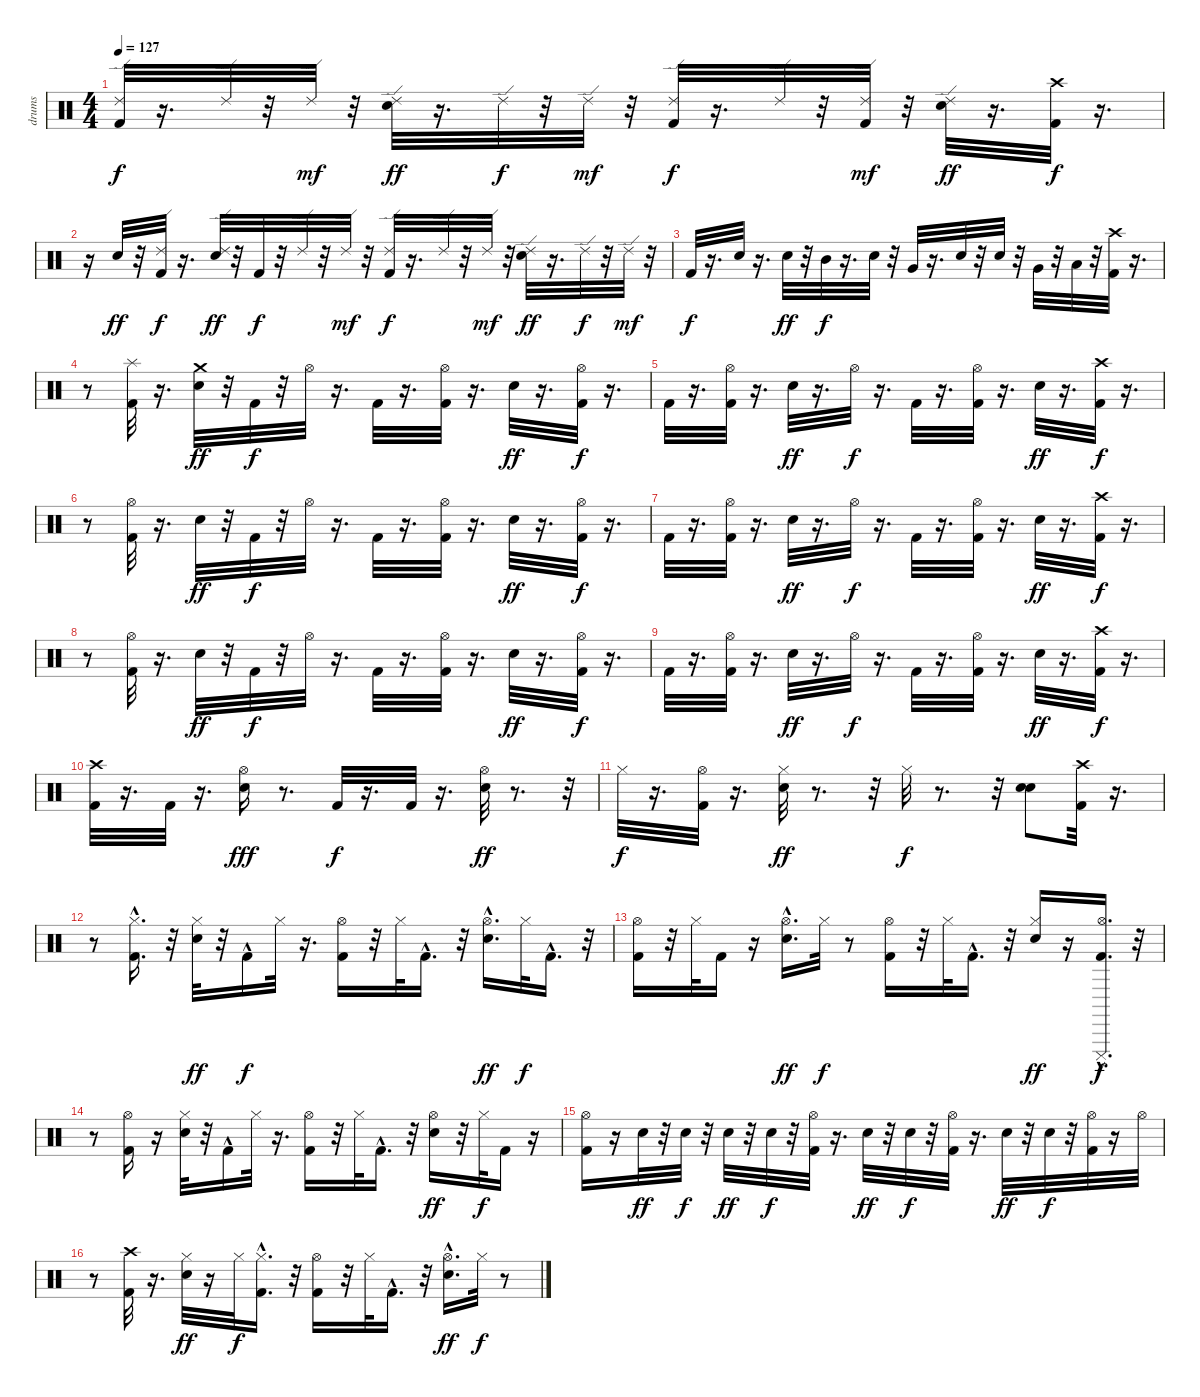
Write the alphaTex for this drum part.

\track ("drums" "drums") {instrument percussion}
\staff {score}
\articulation defaults
\ts (4 4)
\tempo 127
\clef neutral
\ks c
("Ride (edge) 2" "Kick (hit) 2").32{dy f} r.16{d} "Ride (edge) 2".32 r.32 "Ride (edge) 2".32{dy mf} r.32 ("Ride (edge) 2" "Electric Snare (hit)").32{dy ff} r.16{d} "Ride (edge) 2".32{dy f} r.32 "Ride (edge) 2".32{dy mf} r.32 ("Ride (edge) 2" "Kick (hit) 2").32{dy f} r.16{d} "Ride (edge) 2".32 r.32 ("Ride (edge) 2" "Kick (hit) 2").32{dy mf} r.32 ("Ride (edge) 2" "Electric Snare (hit)").32{dy ff} r.16{d} ("Crash high (hit)" "Kick (hit) 2").32{dy f} r.16{d} |
r.16 "Electric Snare (hit)".32{dy ff} r.32 ("Ride (edge) 2" "Kick (hit) 2").32{dy f} r.16{d} ("Ride (edge) 2" "Electric Snare (hit)").32{dy ff} r.32 "Kick (hit) 2".32{dy f} r.32 "Ride (edge) 2".32 r.32 "Ride (edge) 2".32{dy mf} r.32 ("Ride (edge) 2" "Kick (hit) 2").32{dy f} r.16{d} "Ride (edge) 2".32 r.32 "Ride (edge) 2".32{dy mf} r.32 ("Ride (edge) 2" "Electric Snare (hit)").32{dy ff} r.16{d} "Ride (edge) 2".32{dy f} r.32 "Ride (edge) 2".32{dy mf} r.32 |
"Kick (hit) 2".32{dy f} r.16{d} "Electric Snare (hit)".32 r.16{d} "Electric Snare (hit)".32{dy ff} r.32 "Mid Tom (hit)".32{dy f} r.16{d} "Electric Snare (hit)".32 r.32 "Very Low Tom (hit)".32 r.16{d} "Electric Snare (hit)".32 r.32 "Electric Snare (hit)".32 r.32 "Very Low Tom (hit)".32 r.32 "Low Floor Tom (hit)".32 r.32 ("Kick (hit) 2" "Crash high (hit)").32 r.16{d} |
r.8 ("Splash (hit)" "Kick (hit) 2").32 r.16{d} ("Crash medium (hit)" "Electric Snare (hit)").32{dy ff} r.32 "Kick (hit) 2".32{dy f} r.32 "Hi-Hat (open)".32 r.16{d} "Kick (hit) 2".32 r.16{d} ("Hi-Hat (open)" "Kick (hit) 2").32 r.16{d} "Electric Snare (hit)".32{dy ff} r.16{d} ("Hi-Hat (open)" "Kick (hit) 2").32{dy f} r.16{d} |
"Kick (hit) 2".32 r.16{d} ("Hi-Hat (open)" "Kick (hit) 2").32 r.16{d} "Electric Snare (hit)".32{dy ff} r.16{d} "Hi-Hat (open)".32{dy f} r.16{d} "Kick (hit) 2".32 r.16{d} ("Hi-Hat (open)" "Kick (hit) 2").32 r.16{d} "Electric Snare (hit)".32{dy ff} r.16{d} ("Crash high (hit)" "Kick (hit) 2").32{dy f} r.16{d} |
r.8 ("Kick (hit) 2" "Hi-Hat (open)").32 r.16{d} "Electric Snare (hit)".32{dy ff} r.32 "Kick (hit) 2".32{dy f} r.32 "Hi-Hat (open)".32 r.16{d} "Kick (hit) 2".32 r.16{d} ("Kick (hit) 2" "Hi-Hat (open)").32 r.16{d} "Electric Snare (hit)".32{dy ff} r.16{d} ("Kick (hit) 2" "Hi-Hat (open)").32{dy f} r.16{d} |
"Kick (hit) 2".32 r.16{d} ("Kick (hit) 2" "Hi-Hat (open)").32 r.16{d} "Electric Snare (hit)".32{dy ff} r.16{d} "Hi-Hat (open)".32{dy f} r.16{d} "Kick (hit) 2".32 r.16{d} ("Kick (hit) 2" "Hi-Hat (open)").32 r.16{d} "Electric Snare (hit)".32{dy ff} r.16{d} ("Crash high (hit)" "Kick (hit) 2").32{dy f} r.16{d} |
r.8 ("Kick (hit) 2" "Hi-Hat (open)").32 r.16{d} "Electric Snare (hit)".32{dy ff} r.32 "Kick (hit) 2".32{dy f} r.32 "Hi-Hat (open)".32 r.16{d} "Kick (hit) 2".32 r.16{d} ("Kick (hit) 2" "Hi-Hat (open)").32 r.16{d} "Electric Snare (hit)".32{dy ff} r.16{d} ("Kick (hit) 2" "Hi-Hat (open)").32{dy f} r.16{d} |
"Kick (hit) 2".32 r.16{d} ("Kick (hit) 2" "Hi-Hat (open)").32 r.16{d} "Electric Snare (hit)".32{dy ff} r.16{d} "Hi-Hat (open)".32{dy f} r.16{d} "Kick (hit) 2".32 r.16{d} ("Kick (hit) 2" "Hi-Hat (open)").32 r.16{d} "Electric Snare (hit)".32{dy ff} r.16{d} ("Crash high (hit)" "Kick (hit) 2").32{dy f} r.16{d} |
("Kick (hit) 2" "Crash high (hit)").32 r.16{d} "Kick (hit) 2".32 r.16{d} ("Electric Snare (hit)" "Hi-Hat (open)").16{dy fff} r.8{d} "Kick (hit) 2".32{dy f} r.16{d} "Kick (hit) 2".32 r.16{d} ("Electric Snare (hit)" "Hi-Hat (open)").32{dy ff} r.8{d} r.32 |
"Hi-Hat (closed)".32{dy f} r.16{d} ("Hi-Hat (open)" "Kick (hit) 2").32 r.16{d} ("Hi-Hat (closed)" "Electric Snare (hit)").32{dy ff} r.8{d} r.32 "Hi-Hat (closed)".32{dy f} r.8{d} r.32 ("Electric Snare (hit)" "Electric Snare (hit)").8 ("Kick (hit) 2" "Crash high (hit)").32 r.16{d} |
r.8 ("Kick (hit) 2"{hac} "Hi-Hat (closed)").16{d} r.32 ("Electric Snare (hit)" "Hi-Hat (closed)").32{dy ff} r.32 "Kick (hit) 2"{hac}.16{dy f} "Hi-Hat (closed)".32 r.16{d} ("Kick (hit) 2" "Hi-Hat (open)").16 r.32 "Hi-Hat (closed)".32 "Kick (hit) 2"{hac}.16{d} r.32 ("Electric Snare (hit)"{hac} "Hi-Hat (open)").16{d dy ff} "Hi-Hat (closed)".32{dy f} "Kick (hit) 2"{hac}.16{d} r.32 |
("Kick (hit) 2" "Hi-Hat (open)").16 r.32 "Hi-Hat (closed)".32 "Kick (hit) 2".16 r.16 ("Electric Snare (hit)"{hac} "Hi-Hat (open)").16{d dy ff} "Hi-Hat (closed)".32{dy f} r.8 ("Kick (hit) 2" "Hi-Hat (open)").16 r.32 "Hi-Hat (closed)".32 "Kick (hit) 2"{hac}.16{d} r.32 ("Electric Snare (hit)" "Hi-Hat (closed)").16{dy ff} r.16 ("Kick (hit) 2"{hac} "Hi-Hat (open)" "Cuica (mute)").16{d dy f} r.32 |
r.8 ("Kick (hit) 2" "Hi-Hat (open)").16 r.16 ("Electric Snare (hit)" "Hi-Hat (closed)").32 r.32 "Kick (hit) 2"{hac}.16 "Hi-Hat (closed)".32 r.16{d} ("Kick (hit) 2" "Hi-Hat (open)").16 r.32 "Hi-Hat (closed)".32 "Kick (hit) 2"{hac}.16{d} r.32 ("Electric Snare (hit)" "Hi-Hat (open)").16{dy ff} r.32 "Hi-Hat (closed)".32{dy f} "Kick (hit) 2".16 r.16 |
("Kick (hit) 2" "Hi-Hat (open)").16 r.16 "Electric Snare (hit)".32{dy ff} r.32 "Electric Snare (hit)".32{dy f} r.32 "Electric Snare (hit)".32{dy ff} r.32 "Electric Snare (hit)".32{dy f} r.32 ("Hi-Hat (open)" "Kick (hit) 2").32 r.16{d} "Electric Snare (hit)".32{dy ff} r.32 "Electric Snare (hit)".32{dy f} r.32 ("Hi-Hat (open)" "Kick (hit) 2").32 r.16{d} "Electric Snare (hit)".32{dy ff} r.32 "Electric Snare (hit)".32{dy f} r.32 ("Kick (hit) 2" "Hi-Hat (open)").32 r.16 "Hi-Hat (open)".32 |
r.8 ("Kick (hit) 2" "Crash high (hit)").32 r.16{d} ("Electric Snare (hit)" "Hi-Hat (closed)").32{dy ff} r.16 "Hi-Hat (closed)".32{dy f} ("Kick (hit) 2"{hac} "Hi-Hat (closed)").16{d} r.32 ("Kick (hit) 2" "Hi-Hat (open)").16 r.32 "Hi-Hat (closed)".32 "Kick (hit) 2"{hac}.16{d} r.32 ("Electric Snare (hit)"{hac} "Hi-Hat (open)").16{d dy ff} "Hi-Hat (closed)".32{dy f} r.8
